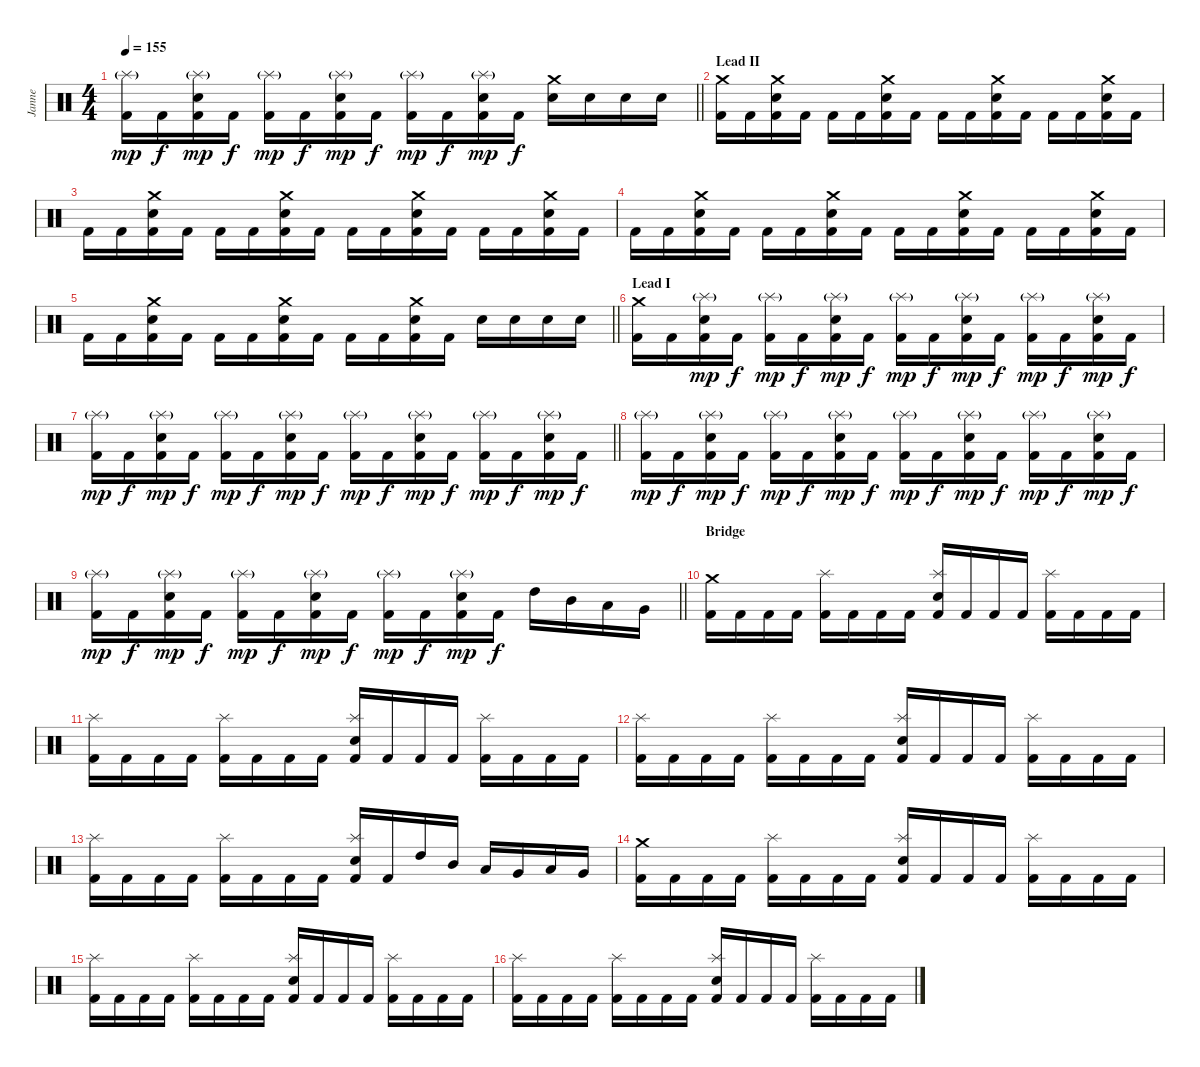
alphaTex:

\track ("Janne" "Janne") {instrument percussion}
\staff {score}
\articulation defaults
\ts (4 4)
\tempo 155
\clef neutral
\barLineRight lightlight
\ks c
("Kick (hit) 2" "Splash (hit)"{g}).16{dy mp} "Kick (hit) 2".16{dy f} ("Kick (hit) 2" "Snare (hit) 2" "Splash (hit)"{g}).16{dy mp} "Kick (hit) 2".16{dy f} ("Kick (hit) 2" "Splash (hit)"{g}).16{dy mp} "Kick (hit) 2".16{dy f} ("Kick (hit) 2" "Snare (hit) 2" "Splash (hit)"{g}).16{dy mp} "Kick (hit) 2".16{dy f} ("Kick (hit) 2" "Splash (hit)"{g}).16{dy mp} "Kick (hit) 2".16{dy f} ("Kick (hit) 2" "Snare (hit) 2" "Splash (hit)"{g}).16{dy mp} "Kick (hit) 2".16{dy f} ("Snare (hit) 2" "Crash medium (hit)").16 "Snare (hit) 2".16 "Snare (hit) 2".16 "Snare (hit) 2".16 |
\section ("" "Lead II")
("Kick (hit) 2" "Crash medium (hit)").16 "Kick (hit) 2".16 ("Kick (hit) 2" "Snare (hit) 2" "Crash medium (hit)").16 "Kick (hit) 2".16 "Kick (hit) 2".16 "Kick (hit) 2".16 ("Kick (hit) 2" "Snare (hit) 2" "Crash medium (hit)").16 "Kick (hit) 2".16 "Kick (hit) 2".16 "Kick (hit) 2".16 ("Kick (hit) 2" "Snare (hit) 2" "Crash medium (hit)").16 "Kick (hit) 2".16 "Kick (hit) 2".16 "Kick (hit) 2".16 ("Kick (hit) 2" "Snare (hit) 2" "Crash medium (hit)").16 "Kick (hit) 2".16 |
"Kick (hit) 2".16 "Kick (hit) 2".16 ("Kick (hit) 2" "Snare (hit) 2" "Crash medium (hit)").16 "Kick (hit) 2".16 "Kick (hit) 2".16 "Kick (hit) 2".16 ("Kick (hit) 2" "Snare (hit) 2" "Crash medium (hit)").16 "Kick (hit) 2".16 "Kick (hit) 2".16 "Kick (hit) 2".16 ("Kick (hit) 2" "Snare (hit) 2" "Crash medium (hit)").16 "Kick (hit) 2".16 "Kick (hit) 2".16 "Kick (hit) 2".16 ("Kick (hit) 2" "Snare (hit) 2" "Crash medium (hit)").16 "Kick (hit) 2".16 |
"Kick (hit) 2".16 "Kick (hit) 2".16 ("Kick (hit) 2" "Snare (hit) 2" "Crash medium (hit)").16 "Kick (hit) 2".16 "Kick (hit) 2".16 "Kick (hit) 2".16 ("Kick (hit) 2" "Snare (hit) 2" "Crash medium (hit)").16 "Kick (hit) 2".16 "Kick (hit) 2".16 "Kick (hit) 2".16 ("Kick (hit) 2" "Snare (hit) 2" "Crash medium (hit)").16 "Kick (hit) 2".16 "Kick (hit) 2".16 "Kick (hit) 2".16 ("Kick (hit) 2" "Snare (hit) 2" "Crash medium (hit)").16 "Kick (hit) 2".16 |
\barLineRight lightlight "Kick (hit) 2".16 "Kick (hit) 2".16
("Kick (hit) 2" "Snare (hit) 2" "Crash medium (hit)").16 "Kick (hit) 2".16 "Kick (hit) 2".16 "Kick (hit) 2".16 ("Kick (hit) 2" "Snare (hit) 2" "Crash medium (hit)").16 "Kick (hit) 2".16 "Kick (hit) 2".16 "Kick (hit) 2".16 ("Kick (hit) 2" "Snare (hit) 2" "Crash medium (hit)").16 "Kick (hit) 2".16 "Snare (hit) 2".16 "Snare (hit) 2".16 "Snare (hit) 2".16 "Snare (hit) 2".16 |
\section ("" "Lead I")
("Kick (hit) 2" "Crash medium (hit)").16 "Kick (hit) 2".16 ("Kick (hit) 2" "Snare (hit) 2" "Splash (hit)"{g}).16{dy mp} "Kick (hit) 2".16{dy f} ("Kick (hit) 2" "Splash (hit)"{g}).16{dy mp} "Kick (hit) 2".16{dy f} ("Kick (hit) 2" "Snare (hit) 2" "Splash (hit)"{g}).16{dy mp} "Kick (hit) 2".16{dy f} ("Kick (hit) 2" "Splash (hit)"{g}).16{dy mp} "Kick (hit) 2".16{dy f} ("Kick (hit) 2" "Snare (hit) 2" "Splash (hit)"{g}).16{dy mp} "Kick (hit) 2".16{dy f} ("Kick (hit) 2" "Splash (hit)"{g}).16{dy mp} "Kick (hit) 2".16{dy f} ("Kick (hit) 2" "Snare (hit) 2" "Splash (hit)"{g}).16{dy mp} "Kick (hit) 2".16{dy f} |
\barLineRight lightlight
("Kick (hit) 2" "Splash (hit)"{g}).16{dy mp} "Kick (hit) 2".16{dy f} ("Kick (hit) 2" "Snare (hit) 2" "Splash (hit)"{g}).16{dy mp} "Kick (hit) 2".16{dy f} ("Kick (hit) 2" "Splash (hit)"{g}).16{dy mp} "Kick (hit) 2".16{dy f} ("Kick (hit) 2" "Snare (hit) 2" "Splash (hit)"{g}).16{dy mp} "Kick (hit) 2".16{dy f} ("Kick (hit) 2" "Splash (hit)"{g}).16{dy mp} "Kick (hit) 2".16{dy f} ("Kick (hit) 2" "Snare (hit) 2" "Splash (hit)"{g}).16{dy mp} "Kick (hit) 2".16{dy f} ("Kick (hit) 2" "Splash (hit)"{g}).16{dy mp} "Kick (hit) 2".16{dy f} ("Kick (hit) 2" "Snare (hit) 2" "Splash (hit)"{g}).16{dy mp} "Kick (hit) 2".16{dy f} |
("Kick (hit) 2" "Splash (hit)"{g}).16{dy mp} "Kick (hit) 2".16{dy f} ("Kick (hit) 2" "Snare (hit) 2" "Splash (hit)"{g}).16{dy mp} "Kick (hit) 2".16{dy f} ("Kick (hit) 2" "Splash (hit)"{g}).16{dy mp} "Kick (hit) 2".16{dy f} ("Kick (hit) 2" "Snare (hit) 2" "Splash (hit)"{g}).16{dy mp} "Kick (hit) 2".16{dy f} ("Kick (hit) 2" "Splash (hit)"{g}).16{dy mp} "Kick (hit) 2".16{dy f} ("Kick (hit) 2" "Snare (hit) 2" "Splash (hit)"{g}).16{dy mp} "Kick (hit) 2".16{dy f} ("Kick (hit) 2" "Splash (hit)"{g}).16{dy mp} "Kick (hit) 2".16{dy f} ("Kick (hit) 2" "Snare (hit) 2" "Splash (hit)"{g}).16{dy mp} "Kick (hit) 2".16{dy f} |
\barLineRight lightlight
("Kick (hit) 2" "Splash (hit)"{g}).16{dy mp} "Kick (hit) 2".16{dy f} ("Kick (hit) 2" "Snare (hit) 2" "Splash (hit)"{g}).16{dy mp} "Kick (hit) 2".16{dy f} ("Kick (hit) 2" "Splash (hit)"{g}).16{dy mp} "Kick (hit) 2".16{dy f} ("Kick (hit) 2" "Snare (hit) 2" "Splash (hit)"{g}).16{dy mp} "Kick (hit) 2".16{dy f} ("Kick (hit) 2" "Splash (hit)"{g}).16{dy mp} "Kick (hit) 2".16{dy f} ("Kick (hit) 2" "Snare (hit) 2" "Splash (hit)"{g}).16{dy mp} "Kick (hit) 2".16{dy f} "High Tom (hit)".16 "Mid Tom (hit)".16 "Low Tom (hit)".16 "Very Low Tom (hit)".16 |
\section ("" "Bridge")
("Kick (hit) 2" "Crash medium (hit)").16 "Kick (hit) 2".16 "Kick (hit) 2".16 "Kick (hit) 2".16 ("Kick (hit) 2" "Splash (hit)").16 "Kick (hit) 2".16 "Kick (hit) 2".16 "Kick (hit) 2".16 ("Kick (hit) 2" "Snare (hit) 2" "Splash (hit)").16 "Kick (hit) 2".16 "Kick (hit) 2".16 "Kick (hit) 2".16 ("Kick (hit) 2" "Splash (hit)").16 "Kick (hit) 2".16 "Kick (hit) 2".16 "Kick (hit) 2".16 |
("Kick (hit) 2" "Splash (hit)").16 "Kick (hit) 2".16 "Kick (hit) 2".16 "Kick (hit) 2".16 ("Kick (hit) 2" "Splash (hit)").16 "Kick (hit) 2".16 "Kick (hit) 2".16 "Kick (hit) 2".16 ("Kick (hit) 2" "Snare (hit) 2" "Splash (hit)").16 "Kick (hit) 2".16 "Kick (hit) 2".16 "Kick (hit) 2".16 ("Kick (hit) 2" "Splash (hit)").16 "Kick (hit) 2".16 "Kick (hit) 2".16 "Kick (hit) 2".16 |
("Kick (hit) 2" "Splash (hit)").16 "Kick (hit) 2".16 "Kick (hit) 2".16 "Kick (hit) 2".16 ("Kick (hit) 2" "Splash (hit)").16 "Kick (hit) 2".16 "Kick (hit) 2".16 "Kick (hit) 2".16 ("Kick (hit) 2" "Snare (hit) 2" "Splash (hit)").16 "Kick (hit) 2".16 "Kick (hit) 2".16 "Kick (hit) 2".16 ("Kick (hit) 2" "Splash (hit)").16 "Kick (hit) 2".16 "Kick (hit) 2".16 "Kick (hit) 2".16 |
("Kick (hit) 2" "Splash (hit)").16 "Kick (hit) 2".16 "Kick (hit) 2".16 "Kick (hit) 2".16 ("Kick (hit) 2" "Splash (hit)").16 "Kick (hit) 2".16 "Kick (hit) 2".16 "Kick (hit) 2".16 ("Kick (hit) 2" "Snare (hit) 2" "Splash (hit)").16 "Kick (hit) 2".16 "High Tom (hit)".16 "Mid Tom (hit)".16 "Low Tom (hit)".16 "Very Low Tom (hit)".16 "Low Tom (hit)".16 "Very Low Tom (hit)".16 |
("Kick (hit) 2" "Crash medium (hit)").16 "Kick (hit) 2".16 "Kick (hit) 2".16 "Kick (hit) 2".16 ("Kick (hit) 2" "Splash (hit)").16 "Kick (hit) 2".16 "Kick (hit) 2".16 "Kick (hit) 2".16 ("Kick (hit) 2" "Snare (hit) 2" "Splash (hit)").16 "Kick (hit) 2".16 "Kick (hit) 2".16 "Kick (hit) 2".16 ("Kick (hit) 2" "Splash (hit)").16 "Kick (hit) 2".16 "Kick (hit) 2".16 "Kick (hit) 2".16 |
("Kick (hit) 2" "Splash (hit)").16 "Kick (hit) 2".16 "Kick (hit) 2".16 "Kick (hit) 2".16 ("Kick (hit) 2" "Splash (hit)").16 "Kick (hit) 2".16 "Kick (hit) 2".16 "Kick (hit) 2".16 ("Kick (hit) 2" "Snare (hit) 2" "Splash (hit)").16 "Kick (hit) 2".16 "Kick (hit) 2".16 "Kick (hit) 2".16 ("Kick (hit) 2" "Splash (hit)").16 "Kick (hit) 2".16 "Kick (hit) 2".16 "Kick (hit) 2".16 |
("Kick (hit) 2" "Splash (hit)").16 "Kick (hit) 2".16 "Kick (hit) 2".16 "Kick (hit) 2".16 ("Kick (hit) 2" "Splash (hit)").16 "Kick (hit) 2".16 "Kick (hit) 2".16 "Kick (hit) 2".16 ("Kick (hit) 2" "Snare (hit) 2" "Splash (hit)").16 "Kick (hit) 2".16 "Kick (hit) 2".16 "Kick (hit) 2".16 ("Kick (hit) 2" "Splash (hit)").16 "Kick (hit) 2".16 "Kick (hit) 2".16 "Kick (hit) 2".16
